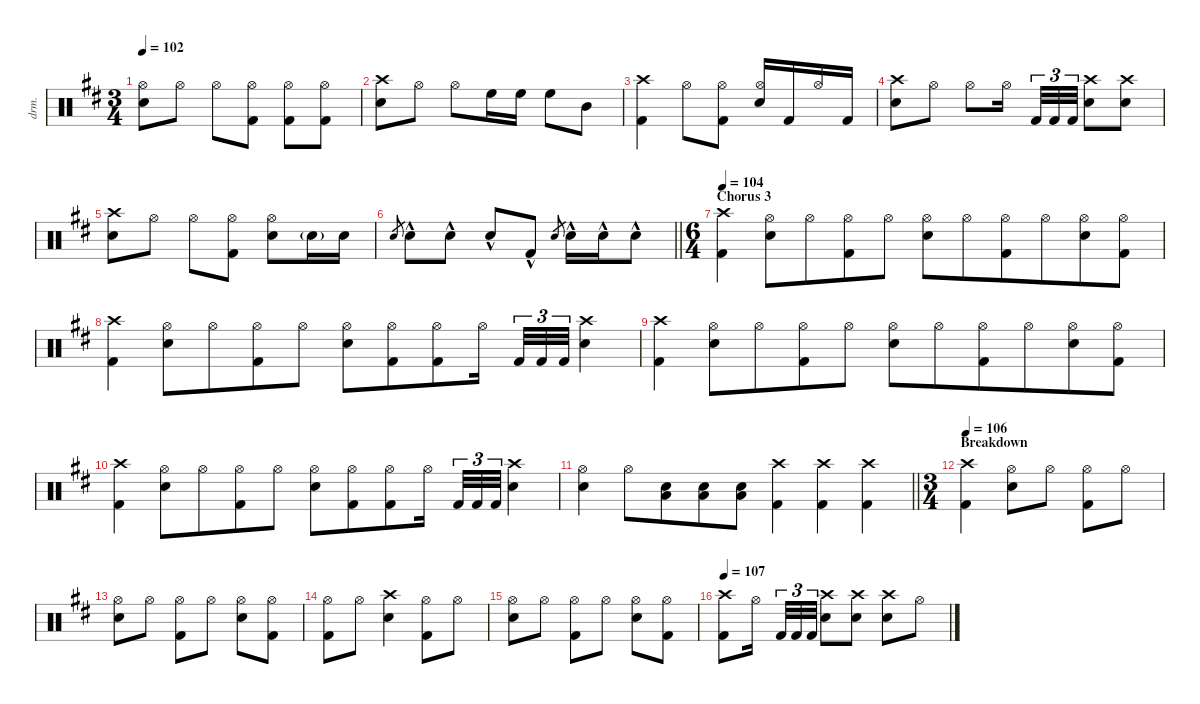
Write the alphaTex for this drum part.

\defaultSystemsLayout 4
\hideDynamics
\bracketExtendMode nobrackets
\otherSystemsTrackNameOrientation horizontal
\track ("Lars Ulrich" "drm.") {defaultSystemsLayout 4 instrument percussion}
\staff {score}
\articulation defaults
\ts (3 4)
\tempo 102
\clef neutral
\ks bminor
("Hi-Hat (open)"{acc forcenatural} "Snare (hit) 2"{acc forcenatural}).8{dy mf beam Down} "Hi-Hat (open)"{acc forcenatural}.8{beam Down} "Hi-Hat (open)"{acc forcenatural}.8{beam Down} ("Hi-Hat (open)"{acc forcenatural} "Kick (hit) 2"{acc forcenatural}).8{beam Down} ("Hi-Hat (open)"{acc forcenatural} "Kick (hit) 2"{acc forcenatural}).8{beam Down} ("Hi-Hat (open)"{acc forcenatural} "Kick (hit) 2"{acc forcenatural}).8{beam Down} |
("Crash high (hit)"{acc forcenatural} "Snare (hit) 2"{acc forcenatural}).8{dy f beam Down} "Hi-Hat (open)"{acc forcenatural}.8{dy mf beam Down} "Hi-Hat (open)"{acc forcenatural}.8{beam Down} "High Floor Tom (hit)"{acc forcenatural}.16{dy f beam Down} "High Floor Tom (hit)"{acc forcenatural}.16{dy fff beam Down} "High Floor Tom (hit)"{acc forcenatural}.8{beam Down} "Mid Tom (hit)"{acc forcenatural}.8{beam Down} |
("Crash high (hit)"{acc forcenatural} "Kick (hit) 2"{acc forcenatural}).4{dy f beam Down} "Hi-Hat (open)"{acc forcenatural}.8{dy mf beam Down} ("Hi-Hat (open)"{acc forcenatural} "Kick (hit) 2"{acc forcenatural}).8{beam Down} ("Hi-Hat (open)"{acc forcenatural} "Snare (hit) 2"{acc forcenatural}).16{beam Up} "Kick (hit) 2"{acc forcenatural}.16{dy fff beam Up} "Hi-Hat (open)"{acc forcenatural}.16{dy mf beam Up} "Kick (hit) 2"{acc forcenatural}.16{dy fff beam Up} |
("Crash high (hit)"{acc forcenatural} "Snare (hit) 2"{acc forcenatural}).8{dy f beam Down} "Hi-Hat (open)"{acc forcenatural}.8{dy mf beam Down} "Hi-Hat (open)"{acc forcenatural}.8{beam Down} "Hi-Hat (open)"{acc forcenatural}.16{beam Down} "Kick (hit) 2"{acc forcenatural}.32{tu (3 2) dy fff beam Up} "Kick (hit) 2"{acc forcenatural}.32{tu (3 2) beam Up} "Kick (hit) 2"{acc forcenatural}.32{tu (3 2) beam Up} ("Crash high (hit)"{acc forcenatural} "Snare (hit) 2"{acc forcenatural}).8{dy f beam Down} ("Crash high (hit)"{acc forcenatural} "Snare (hit) 2"{acc forcenatural}).8{beam Down} |
("Crash high (hit)"{acc forcenatural} "Snare (hit) 2"{acc forcenatural}).8{beam Down} "Hi-Hat (open)"{acc forcenatural}.8{dy mf beam Down} "Hi-Hat (open)"{acc forcenatural}.8{beam Down} ("Hi-Hat (open)"{acc forcenatural} "Kick (hit) 2"{acc forcenatural}).8{beam Down} ("Hi-Hat (open)"{acc forcenatural} "Snare (hit) 2"{acc forcenatural}).8{beam Down} "Snare (hit) 2"{g acc forcenatural}.16{dy ff beam Down} "Snare (hit) 2"{acc forcenatural}.16{dy fff beam Down} |
\barLineRight lightlight "Electric Snare (hit)"{acc forcenatural}.8{gr dy mp beam Up} "Snare (hit) 2"{hac acc forcenatural}.8{dy f beam Down} "Snare (hit) 2"{hac acc forcenatural}.8{beam Down} "Snare (hit) 2"{hac acc forcenatural}.8{beam Up} "Kick (hit) 2"{hac acc forcenatural}.8{beam Up} "Electric Snare (hit)"{acc forcenatural}.8{gr dy mp beam Up} "Snare (hit) 2"{hac acc forcenatural}.16{dy f beam Down} "Snare (hit) 2"{hac acc forcenatural}.16{beam Down} "Snare (hit) 2"{hac acc forcenatural}.8{beam Down}
|
\ts (6 4)
\beaming (8 6 6)
\section ("" "Chorus 3")
\tempo 104
("Crash high (hit)"{acc forcenatural} "Kick (hit) 2"{acc forcenatural}).4{beam Down} ("Hi-Hat (open)"{acc forcenatural} "Snare (hit) 2"{acc forcenatural}).8{beam Down} "Hi-Hat (open)"{acc forcenatural}.8{beam Down} ("Hi-Hat (open)"{acc forcenatural} "Kick (hit) 2"{acc forcenatural}).8{beam Down} "Hi-Hat (open)"{acc forcenatural}.8{beam Down} ("Hi-Hat (open)"{acc forcenatural} "Snare (hit) 2"{acc forcenatural}).8{beam Down} "Hi-Hat (open)"{acc forcenatural}.8{beam Down} ("Hi-Hat (open)"{acc forcenatural} "Kick (hit) 2"{acc forcenatural}).8{beam Down} "Hi-Hat (open)"{acc forcenatural}.8{beam Down} ("Hi-Hat (open)"{acc forcenatural} "Snare (hit) 2"{acc forcenatural}).8{beam Down} ("Hi-Hat (open)"{acc forcenatural} "Kick (hit) 2"{acc forcenatural}).8{beam Down} |
("Crash high (hit)"{acc forcenatural} "Kick (hit) 2"{acc forcenatural}).4{beam Down} ("Hi-Hat (open)"{acc forcenatural} "Snare (hit) 2"{acc forcenatural}).8{beam Down} "Hi-Hat (open)"{acc forcenatural}.8{beam Down} ("Hi-Hat (open)"{acc forcenatural} "Kick (hit) 2"{acc forcenatural}).8{beam Down} "Hi-Hat (open)"{acc forcenatural}.8{beam Down} ("Hi-Hat (open)"{acc forcenatural} "Snare (hit) 2"{acc forcenatural}).8{beam Down} ("Hi-Hat (open)"{acc forcenatural} "Kick (hit) 2"{acc forcenatural}).8{beam Down} ("Hi-Hat (open)"{acc forcenatural} "Kick (hit) 2"{acc forcenatural}).8{beam Down} "Hi-Hat (open)"{acc forcenatural}.16{beam Down} "Kick (hit) 2"{acc forcenatural}.32{tu (3 2) dy fff beam Up} "Kick (hit) 2"{acc forcenatural}.32{tu (3 2) beam Up} "Kick (hit) 2"{acc forcenatural}.32{tu (3 2) beam Up} ("Crash high (hit)"{acc forcenatural} "Snare (hit) 2"{acc forcenatural}).4{dy f beam Down} |
("Crash high (hit)"{acc forcenatural} "Kick (hit) 2"{acc forcenatural}).4{beam Down} ("Hi-Hat (open)"{acc forcenatural} "Snare (hit) 2"{acc forcenatural}).8{beam Down} "Hi-Hat (open)"{acc forcenatural}.8{beam Down} ("Hi-Hat (open)"{acc forcenatural} "Kick (hit) 2"{acc forcenatural}).8{beam Down} "Hi-Hat (open)"{acc forcenatural}.8{beam Down} ("Hi-Hat (open)"{acc forcenatural} "Snare (hit) 2"{acc forcenatural}).8{beam Down} "Hi-Hat (open)"{acc forcenatural}.8{beam Down} ("Hi-Hat (open)"{acc forcenatural} "Kick (hit) 2"{acc forcenatural}).8{beam Down} "Hi-Hat (open)"{acc forcenatural}.8{beam Down} ("Hi-Hat (open)"{acc forcenatural} "Snare (hit) 2"{acc forcenatural}).8{beam Down} ("Hi-Hat (open)"{acc forcenatural} "Kick (hit) 2"{acc forcenatural}).8{beam Down} |
("Crash high (hit)"{acc forcenatural} "Kick (hit) 2"{acc forcenatural}).4{beam Down} ("Hi-Hat (open)"{acc forcenatural} "Snare (hit) 2"{acc forcenatural}).8{beam Down} "Hi-Hat (open)"{acc forcenatural}.8{beam Down} ("Hi-Hat (open)"{acc forcenatural} "Kick (hit) 2"{acc forcenatural}).8{beam Down} "Hi-Hat (open)"{acc forcenatural}.8{beam Down} ("Hi-Hat (open)"{acc forcenatural} "Snare (hit) 2"{acc forcenatural}).8{beam Down} ("Hi-Hat (open)"{acc forcenatural} "Kick (hit) 2"{acc forcenatural}).8{beam Down} ("Hi-Hat (open)"{acc forcenatural} "Kick (hit) 2"{acc forcenatural}).8{beam Down} "Hi-Hat (open)"{acc forcenatural}.16{beam Down} "Kick (hit) 2"{acc forcenatural}.32{tu (3 2) dy fff beam Up} "Kick (hit) 2"{acc forcenatural}.32{tu (3 2) beam Up} "Kick (hit) 2"{acc forcenatural}.32{tu (3 2) beam Up} ("Crash high (hit)"{acc forcenatural} "Snare (hit) 2"{acc forcenatural}).4{dy f beam Down} |
\barLineRight lightlight
("Hi-Hat (open)"{acc forcenatural} "Snare (hit) 2"{acc forcenatural}).4{beam Down} "Hi-Hat (open)"{acc forcenatural}.8{beam Down} ("Snare (hit) 2"{acc forcenatural} "Low Floor Tom (hit)"{acc forcenatural}).8{beam Down} ("Snare (hit) 2"{acc forcenatural} "Low Floor Tom (hit)"{acc forcenatural}).8{beam Down} ("Snare (hit) 2"{acc forcenatural} "Low Floor Tom (hit)"{acc forcenatural}).8{beam Down} ("Crash high (hit)"{acc forcenatural} "Kick (hit) 2"{acc forcenatural}).4{beam Down} ("Crash high (hit)"{acc forcenatural} "Kick (hit) 2"{acc forcenatural}).4{beam Down} ("Crash high (hit)"{acc forcenatural} "Kick (hit) 2"{acc forcenatural}).4{beam Down} |
\ts (3 4)
\beaming (8 2 2 2)
\section ("" "Breakdown")
\tempo 106
("Crash high (hit)"{acc forcenatural} "Kick (hit) 2"{acc forcenatural}).4{beam Down} ("Hi-Hat (open)"{acc forcenatural} "Snare (hit) 2"{acc forcenatural}).8{beam Down} "Hi-Hat (open)"{acc forcenatural}.8{beam Down} ("Hi-Hat (open)"{acc forcenatural} "Kick (hit) 2"{acc forcenatural}).8{beam Down} "Hi-Hat (open)"{acc forcenatural}.8{beam Down} |
("Hi-Hat (open)"{acc forcenatural} "Snare (hit) 2"{acc forcenatural}).8{beam Down} "Hi-Hat (open)"{acc forcenatural}.8{beam Down} ("Hi-Hat (open)"{acc forcenatural} "Kick (hit) 2"{acc forcenatural}).8{beam Down} "Hi-Hat (open)"{acc forcenatural}.8{beam Down} ("Hi-Hat (open)"{acc forcenatural} "Snare (hit) 2"{acc forcenatural}).8{beam Down} ("Hi-Hat (open)"{acc forcenatural} "Kick (hit) 2"{acc forcenatural}).8{beam Down} |
("Hi-Hat (open)"{acc forcenatural} "Kick (hit) 2"{acc forcenatural}).8{beam Down} "Hi-Hat (open)"{acc forcenatural}.8{beam Down} ("Crash high (hit)"{acc forcenatural} "Snare (hit) 2"{acc forcenatural}).4{beam Down} ("Hi-Hat (open)"{acc forcenatural} "Kick (hit) 2"{acc forcenatural}).8{beam Down} "Hi-Hat (open)"{acc forcenatural}.8{beam Down} |
("Hi-Hat (open)"{acc forcenatural} "Snare (hit) 2"{acc forcenatural}).8{beam Down} "Hi-Hat (open)"{acc forcenatural}.8{beam Down} ("Hi-Hat (open)"{acc forcenatural} "Kick (hit) 2"{acc forcenatural}).8{beam Down} "Hi-Hat (open)"{acc forcenatural}.8{beam Down} ("Hi-Hat (open)"{acc forcenatural} "Snare (hit) 2"{acc forcenatural}).8{beam Down} ("Hi-Hat (open)"{acc forcenatural} "Kick (hit) 2"{acc forcenatural}).8{beam Down} |
\tempo 107
("Crash high (hit)"{acc forcenatural} "Kick (hit) 2"{acc forcenatural}).8{beam Down} "Hi-Hat (open)"{acc forcenatural}.16{beam Down} "Kick (hit) 2"{acc forcenatural}.32{tu (3 2) dy fff beam Up} "Kick (hit) 2"{acc forcenatural}.32{tu (3 2) beam Up} "Kick (hit) 2"{acc forcenatural}.32{tu (3 2) beam Up} ("Crash high (hit)"{acc forcenatural} "Snare (hit) 2"{acc forcenatural}).8{dy f beam Down} ("Crash high (hit)"{acc forcenatural} "Snare (hit) 2"{acc forcenatural}).8{beam Down} ("Crash high (hit)"{acc forcenatural} "Snare (hit) 2"{acc forcenatural}).8{beam Down} "Hi-Hat (open)"{acc forcenatural}.8{beam Down}
